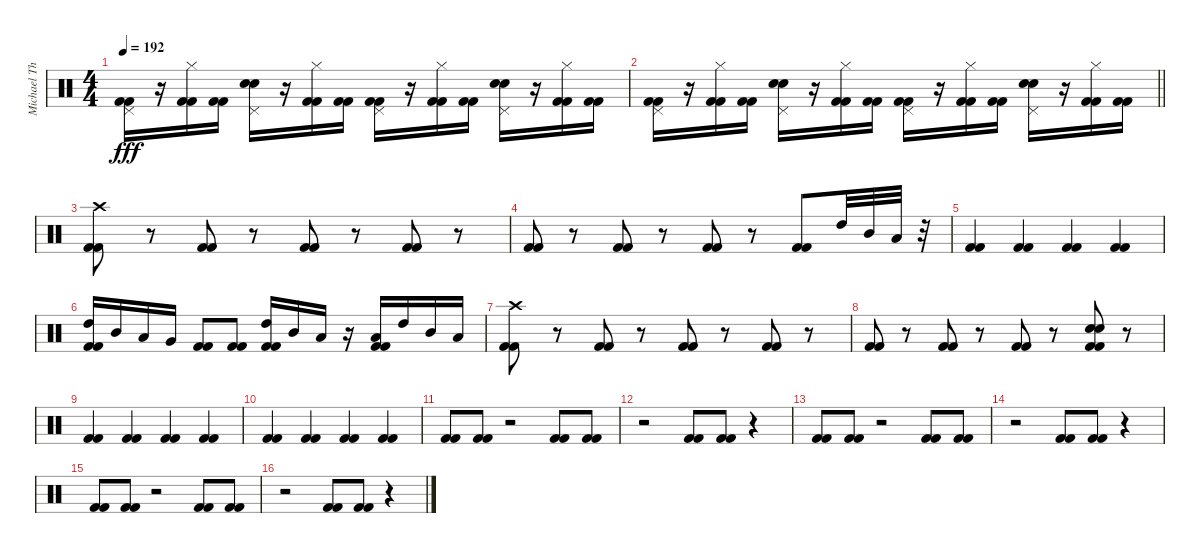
\track ("Michael Thomas" "Michael Th") {instrument percussion}
\staff {score}
\articulation defaults
\ts (4 4)
\tempo 192
\clef neutral
\ks c
("Pedal Hi-Hat (hit)" "Kick (hit) 2" "Kick (hit) 2").16{dy fff} r.16 ("Hi-Hat (closed)" "Kick (hit) 2" "Kick (hit) 2").16 ("Kick (hit) 2" "Kick (hit) 2").16 ("Pedal Hi-Hat (hit)" "Snare (hit) 2" "Electric Snare (hit)").16 r.16 ("Hi-Hat (closed)" "Kick (hit) 2" "Kick (hit) 2").16 ("Kick (hit) 2" "Kick (hit) 2").16 ("Pedal Hi-Hat (hit)" "Kick (hit) 2" "Kick (hit) 2").16 r.16 ("Hi-Hat (closed)" "Kick (hit) 2" "Kick (hit) 2").16 ("Kick (hit) 2" "Kick (hit) 2").16 ("Pedal Hi-Hat (hit)" "Snare (hit) 2" "Electric Snare (hit)").16 r.16 ("Hi-Hat (closed)" "Kick (hit) 2" "Kick (hit) 2").16 ("Kick (hit) 2" "Kick (hit) 2").16 |
\barLineRight lightlight
("Pedal Hi-Hat (hit)" "Kick (hit) 2" "Kick (hit) 2").16 r.16 ("Hi-Hat (closed)" "Kick (hit) 2" "Kick (hit) 2").16 ("Kick (hit) 2" "Kick (hit) 2").16 ("Pedal Hi-Hat (hit)" "Snare (hit) 2" "Electric Snare (hit)").16 r.16 ("Hi-Hat (closed)" "Kick (hit) 2" "Kick (hit) 2").16 ("Kick (hit) 2" "Kick (hit) 2").16 ("Pedal Hi-Hat (hit)" "Kick (hit) 2" "Kick (hit) 2").16 r.16 ("Hi-Hat (closed)" "Kick (hit) 2" "Kick (hit) 2").16 ("Kick (hit) 2" "Kick (hit) 2").16 ("Pedal Hi-Hat (hit)" "Snare (hit) 2" "Electric Snare (hit)").16 r.16 ("Hi-Hat (closed)" "Kick (hit) 2" "Kick (hit) 2").16 ("Kick (hit) 2" "Kick (hit) 2").16 |
("Crash high (hit)" "Kick (hit) 2" "Kick (hit) 2").8 r.8 ("Kick (hit) 2" "Kick (hit) 2").8 r.8 ("Kick (hit) 2" "Kick (hit) 2").8 r.8 ("Kick (hit) 2" "Kick (hit) 2").8 r.8 |
("Kick (hit) 2" "Kick (hit) 2").8 r.8 ("Kick (hit) 2" "Kick (hit) 2").8 r.8 ("Kick (hit) 2" "Kick (hit) 2").8 r.8 ("Kick (hit) 2" "Kick (hit) 2").8 "High Tom (hit)".32 "Mid Tom (hit)".32 "Low Tom (hit)".32 r.32 |
("Kick (hit) 2" "Kick (hit) 2").4 ("Kick (hit) 2" "Kick (hit) 2").4 ("Kick (hit) 2" "Kick (hit) 2").4 ("Kick (hit) 2" "Kick (hit) 2").4 |
("High Tom (hit)" "Kick (hit) 2" "Kick (hit) 2").16 "Mid Tom (hit)".16 "Low Tom (hit)".16 "Very Low Tom (hit)".16 ("Kick (hit) 2" "Kick (hit) 2").8 ("Kick (hit) 2" "Kick (hit) 2").8 ("High Tom (hit)" "Kick (hit) 2" "Kick (hit) 2").16 "Mid Tom (hit)".16 "Low Tom (hit)".16 r.16 ("Low Floor Tom (hit)" "Kick (hit) 2" "Kick (hit) 2").16 "High Tom (hit)".16 "Mid Tom (hit)".16 "Low Tom (hit)".16 |
("Crash high (hit)" "Kick (hit) 2" "Kick (hit) 2").8 r.8 ("Kick (hit) 2" "Kick (hit) 2").8 r.8 ("Kick (hit) 2" "Kick (hit) 2").8 r.8 ("Kick (hit) 2" "Kick (hit) 2").8 r.8 |
("Kick (hit) 2" "Kick (hit) 2").8 r.8 ("Kick (hit) 2" "Kick (hit) 2").8 r.8 ("Kick (hit) 2" "Kick (hit) 2").8 r.8 ("Snare (hit) 2" "Electric Snare (hit)" "Kick (hit) 2" "Kick (hit) 2").8 r.8 |
("Kick (hit) 2" "Kick (hit) 2").4 ("Kick (hit) 2" "Kick (hit) 2").4 ("Kick (hit) 2" "Kick (hit) 2").4 ("Kick (hit) 2" "Kick (hit) 2").4 |
("Kick (hit) 2" "Kick (hit) 2").4 ("Kick (hit) 2" "Kick (hit) 2").4 ("Kick (hit) 2" "Kick (hit) 2").4 ("Kick (hit) 2" "Kick (hit) 2").4 |
("Kick (hit) 2" "Kick (hit) 2").8 ("Kick (hit) 2" "Kick (hit) 2").8 r.2 ("Kick (hit) 2" "Kick (hit) 2").8 ("Kick (hit) 2" "Kick (hit) 2").8 |
r.2 ("Kick (hit) 2" "Kick (hit) 2").8 ("Kick (hit) 2" "Kick (hit) 2").8 r.4 |
("Kick (hit) 2" "Kick (hit) 2").8 ("Kick (hit) 2" "Kick (hit) 2").8 r.2 ("Kick (hit) 2" "Kick (hit) 2").8 ("Kick (hit) 2" "Kick (hit) 2").8 |
r.2 ("Kick (hit) 2" "Kick (hit) 2").8 ("Kick (hit) 2" "Kick (hit) 2").8 r.4 |
("Kick (hit) 2" "Kick (hit) 2").8 ("Kick (hit) 2" "Kick (hit) 2").8 r.2 ("Kick (hit) 2" "Kick (hit) 2").8 ("Kick (hit) 2" "Kick (hit) 2").8 |
r.2 ("Kick (hit) 2" "Kick (hit) 2").8 ("Kick (hit) 2" "Kick (hit) 2").8 r.4
